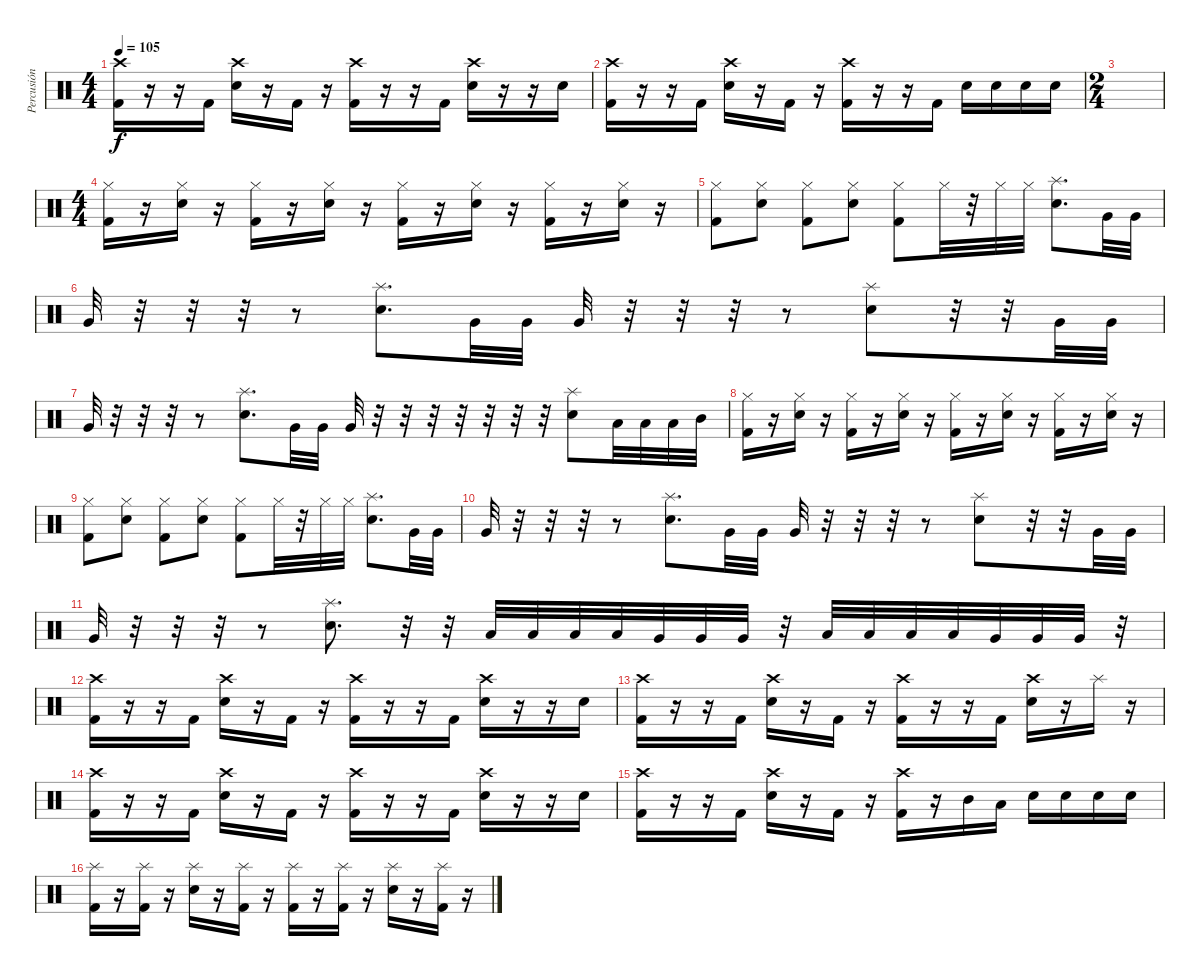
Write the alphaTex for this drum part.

\track ("Percusión" "Percusión") {instrument percussion}
\staff {score}
\articulation defaults
\ts (4 4)
\tempo 105
\clef neutral
\ks c
("Crash high (hit)" "Kick (hit) 2").16{dy f} r.16 r.16 "Kick (hit) 2".16 ("Crash high (hit)" "Electric Snare (hit)").16 r.16 "Kick (hit) 2".16 r.16 ("Crash high (hit)" "Kick (hit) 2").16 r.16 r.16 "Kick (hit) 2".16 ("Crash high (hit)" "Electric Snare (hit)").16 r.16 r.16 "Electric Snare (hit)".16 |
("Crash high (hit)" "Kick (hit) 2").16 r.16 r.16 "Kick (hit) 2".16 ("Crash high (hit)" "Electric Snare (hit)").16 r.16 "Kick (hit) 2".16 r.16 ("Crash high (hit)" "Kick (hit) 2").16 r.16 r.16 "Kick (hit) 2".16 "Electric Snare (hit)".16 "Electric Snare (hit)".16 "Electric Snare (hit)".16 "Electric Snare (hit)".16 |
\ts (2 4)
|
\ts (4 4)
("Hi-Hat (closed)" "Kick (hit) 2").16 r.16 ("Hi-Hat (closed)" "Electric Snare (hit)").16 r.16 ("Hi-Hat (closed)" "Kick (hit) 2").16 r.16 ("Hi-Hat (closed)" "Electric Snare (hit)").16 r.16 ("Hi-Hat (closed)" "Kick (hit) 2").16 r.16 ("Hi-Hat (closed)" "Electric Snare (hit)").16 r.16 ("Hi-Hat (closed)" "Kick (hit) 2").16 r.16 ("Hi-Hat (closed)" "Electric Snare (hit)").16 r.16 |
("Hi-Hat (closed)" "Kick (hit) 2").8 ("Hi-Hat (closed)" "Electric Snare (hit)").8 ("Hi-Hat (closed)" "Kick (hit) 2").8 ("Hi-Hat (closed)" "Electric Snare (hit)").8 ("Hi-Hat (closed)" "Kick (hit) 2").8 "Hi-Hat (closed)".32 r.32 "Hi-Hat (closed)".32 "Hi-Hat (closed)".32 ("Splash (hit)" "Electric Snare (hit)").8{d} "Very Low Tom (hit)".32 "Very Low Tom (hit)".32 |
"Very Low Tom (hit)".32 r.32 r.32 r.32 r.8 ("Electric Snare (hit)" "Splash (hit)").8{d} "Very Low Tom (hit)".32 "Very Low Tom (hit)".32 "Very Low Tom (hit)".32 r.32 r.32 r.32 r.8 ("Electric Snare (hit)" "Splash (hit)").8 r.32 r.32 "Very Low Tom (hit)".32 "Very Low Tom (hit)".32 |
"Very Low Tom (hit)".32 r.32 r.32 r.32 r.8 ("Electric Snare (hit)" "Splash (hit)").8{d} "Very Low Tom (hit)".32 "Very Low Tom (hit)".32 "Very Low Tom (hit)".32 r.32 r.32 r.32 r.32 r.32 r.32 r.32 ("Electric Snare (hit)" "Splash (hit)").8 "Low Tom (hit)".32 "Low Tom (hit)".32 "Low Tom (hit)".32 "Mid Tom (hit)".32 |
("Hi-Hat (closed)" "Kick (hit) 2").16 r.16 ("Hi-Hat (closed)" "Electric Snare (hit)").16 r.16 ("Hi-Hat (closed)" "Kick (hit) 2").16 r.16 ("Hi-Hat (closed)" "Electric Snare (hit)").16 r.16 ("Hi-Hat (closed)" "Kick (hit) 2").16 r.16 ("Hi-Hat (closed)" "Electric Snare (hit)").16 r.16 ("Hi-Hat (closed)" "Kick (hit) 2").16 r.16 ("Hi-Hat (closed)" "Electric Snare (hit)").16 r.16 |
("Hi-Hat (closed)" "Kick (hit) 2").8 ("Hi-Hat (closed)" "Electric Snare (hit)").8 ("Hi-Hat (closed)" "Kick (hit) 2").8 ("Hi-Hat (closed)" "Electric Snare (hit)").8 ("Hi-Hat (closed)" "Kick (hit) 2").8 "Hi-Hat (closed)".32 r.32 "Hi-Hat (closed)".32 "Hi-Hat (closed)".32 ("Splash (hit)" "Electric Snare (hit)").8{d} "Very Low Tom (hit)".32 "Very Low Tom (hit)".32 |
"Very Low Tom (hit)".32 r.32 r.32 r.32 r.8 ("Electric Snare (hit)" "Splash (hit)").8{d} "Very Low Tom (hit)".32 "Very Low Tom (hit)".32 "Very Low Tom (hit)".32 r.32 r.32 r.32 r.8 ("Electric Snare (hit)" "Splash (hit)").8 r.32 r.32 "Very Low Tom (hit)".32 "Very Low Tom (hit)".32 |
"Very Low Tom (hit)".32 r.32 r.32 r.32 r.8 ("Electric Snare (hit)" "Splash (hit)").8{d} r.32 r.32 "Low Tom (hit)".32 "Low Tom (hit)".32 "Low Tom (hit)".32 "Low Tom (hit)".32 "Very Low Tom (hit)".32 "Very Low Tom (hit)".32 "Very Low Tom (hit)".32 r.32 "Low Tom (hit)".32 "Low Tom (hit)".32 "Low Tom (hit)".32 "Low Tom (hit)".32 "Very Low Tom (hit)".32 "Very Low Tom (hit)".32 "Very Low Tom (hit)".32 r.32 |
("Crash high (hit)" "Kick (hit) 2").16 r.16 r.16 "Kick (hit) 2".16 ("Crash high (hit)" "Electric Snare (hit)").16 r.16 "Kick (hit) 2".16 r.16 ("Crash high (hit)" "Kick (hit) 2").16 r.16 r.16 "Kick (hit) 2".16 ("Crash high (hit)" "Electric Snare (hit)").16 r.16 r.16 "Electric Snare (hit)".16 |
("Crash high (hit)" "Kick (hit) 2").16 r.16 r.16 "Kick (hit) 2".16 ("Crash high (hit)" "Electric Snare (hit)").16 r.16 "Kick (hit) 2".16 r.16 ("Crash high (hit)" "Kick (hit) 2").16 r.16 r.16 "Kick (hit) 2".16 ("Crash high (hit)" "Electric Snare (hit)").16 r.16 "Splash (hit)".16 r.16 |
("Crash high (hit)" "Kick (hit) 2").16 r.16 r.16 "Kick (hit) 2".16 ("Crash high (hit)" "Electric Snare (hit)").16 r.16 "Kick (hit) 2".16 r.16 ("Crash high (hit)" "Kick (hit) 2").16 r.16 r.16 "Kick (hit) 2".16 ("Crash high (hit)" "Electric Snare (hit)").16 r.16 r.16 "Electric Snare (hit)".16 |
("Crash high (hit)" "Kick (hit) 2").16 r.16 r.16 "Kick (hit) 2".16 ("Crash high (hit)" "Electric Snare (hit)").16 r.16 "Kick (hit) 2".16 r.16 ("Crash high (hit)" "Kick (hit) 2").16 r.16 "Mid Tom (hit)".16 "Low Tom (hit)".16 "Electric Snare (hit)".16 "Electric Snare (hit)".16 "Electric Snare (hit)".16 "Electric Snare (hit)".16 |
("Splash (hit)" "Kick (hit) 2").16 r.16 ("Splash (hit)" "Kick (hit) 2").16 r.16 ("Splash (hit)" "Electric Snare (hit)").16 r.16 ("Splash (hit)" "Kick (hit) 2").16 r.16 ("Splash (hit)" "Kick (hit) 2").16 r.16 ("Splash (hit)" "Kick (hit) 2").16 r.16 ("Splash (hit)" "Electric Snare (hit)").16 r.16 ("Splash (hit)" "Kick (hit) 2").16 r.16
